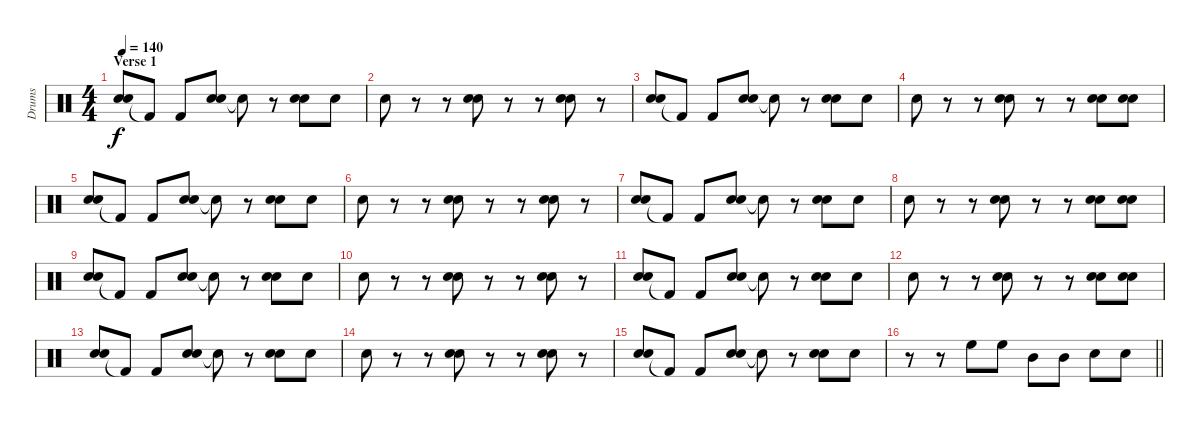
\track ("Drums" "Drums") {instrument percussion}
\staff {score}
\articulation defaults
\ts (4 4)
\section ("" "Verse 1")
\tempo 140
\clef neutral
\ks c
("Snare (hit) 2" "Hand Clap (hit)").8{dy f} "Kick (hit) 2"{t}.8 "Kick (hit) 2".8 ("Snare (hit) 2" "Hand Clap (hit)").8 "Snare (hit)"{t}.8 r.8 ("Snare (hit) 2" "Hand Clap (hit)").8 "Snare (hit) 2".8 |
"Snare (hit) 2".8 r.8 r.8 ("Snare (hit) 2" "Hand Clap (hit)").8 r.8 r.8 ("Snare (hit) 2" "Hand Clap (hit)").8 r.8 |
("Snare (hit) 2" "Hand Clap (hit)").8 "Kick (hit) 2"{t}.8 "Kick (hit) 2".8 ("Snare (hit) 2" "Hand Clap (hit)").8 "Snare (hit)"{t}.8 r.8 ("Snare (hit) 2" "Hand Clap (hit)").8 "Snare (hit) 2".8 |
"Snare (hit) 2".8 r.8 r.8 ("Snare (hit) 2" "Hand Clap (hit)").8 r.8 r.8 ("Snare (hit) 2" "Hand Clap (hit)").8 ("Snare (hit) 2" "Hand Clap (hit)").8 |
("Snare (hit) 2" "Hand Clap (hit)").8 "Kick (hit) 2"{t}.8 "Kick (hit) 2".8 ("Snare (hit) 2" "Hand Clap (hit)").8 "Snare (hit)"{t}.8 r.8 ("Snare (hit) 2" "Hand Clap (hit)").8 "Snare (hit) 2".8 |
"Snare (hit) 2".8 r.8 r.8 ("Snare (hit) 2" "Hand Clap (hit)").8 r.8 r.8 ("Snare (hit) 2" "Hand Clap (hit)").8 r.8 |
("Snare (hit) 2" "Hand Clap (hit)").8 "Kick (hit) 2"{t}.8 "Kick (hit) 2".8 ("Snare (hit) 2" "Hand Clap (hit)").8 "Snare (hit)"{t}.8 r.8 ("Snare (hit) 2" "Hand Clap (hit)").8 "Snare (hit) 2".8 |
"Snare (hit) 2".8 r.8 r.8 ("Snare (hit) 2" "Hand Clap (hit)").8 r.8 r.8 ("Snare (hit) 2" "Hand Clap (hit)").8 ("Snare (hit) 2" "Hand Clap (hit)").8 |
("Snare (hit) 2" "Hand Clap (hit)").8 "Kick (hit) 2"{t}.8 "Kick (hit) 2".8 ("Snare (hit) 2" "Hand Clap (hit)").8 "Snare (hit)"{t}.8 r.8 ("Snare (hit) 2" "Hand Clap (hit)").8 "Snare (hit) 2".8 |
"Snare (hit) 2".8 r.8 r.8 ("Snare (hit) 2" "Hand Clap (hit)").8 r.8 r.8 ("Snare (hit) 2" "Hand Clap (hit)").8 r.8 |
("Snare (hit) 2" "Hand Clap (hit)").8 "Kick (hit) 2"{t}.8 "Kick (hit) 2".8 ("Snare (hit) 2" "Hand Clap (hit)").8 "Snare (hit)"{t}.8 r.8 ("Snare (hit) 2" "Hand Clap (hit)").8 "Snare (hit) 2".8 |
"Snare (hit) 2".8 r.8 r.8 ("Snare (hit) 2" "Hand Clap (hit)").8 r.8 r.8 ("Snare (hit) 2" "Hand Clap (hit)").8 ("Snare (hit) 2" "Hand Clap (hit)").8 |
("Snare (hit) 2" "Hand Clap (hit)").8 "Kick (hit) 2"{t}.8 "Kick (hit) 2".8 ("Snare (hit) 2" "Hand Clap (hit)").8 "Snare (hit)"{t}.8 r.8 ("Snare (hit) 2" "Hand Clap (hit)").8 "Snare (hit) 2".8 |
"Snare (hit) 2".8 r.8 r.8 ("Snare (hit) 2" "Hand Clap (hit)").8 r.8 r.8 ("Snare (hit) 2" "Hand Clap (hit)").8 r.8 |
("Snare (hit) 2" "Hand Clap (hit)").8 "Kick (hit) 2"{t}.8 "Kick (hit) 2".8 ("Snare (hit) 2" "Hand Clap (hit)").8 "Snare (hit)"{t}.8 r.8 ("Snare (hit) 2" "Hand Clap (hit)").8 "Snare (hit) 2".8 |
\barLineRight lightlight
r.8 r.8 "High Floor Tom (hit)".8 "High Floor Tom (hit)".8 "Mid Tom (hit)".8 "Mid Tom (hit)".8 "Snare (hit) 2".8 "Snare (hit) 2".8
